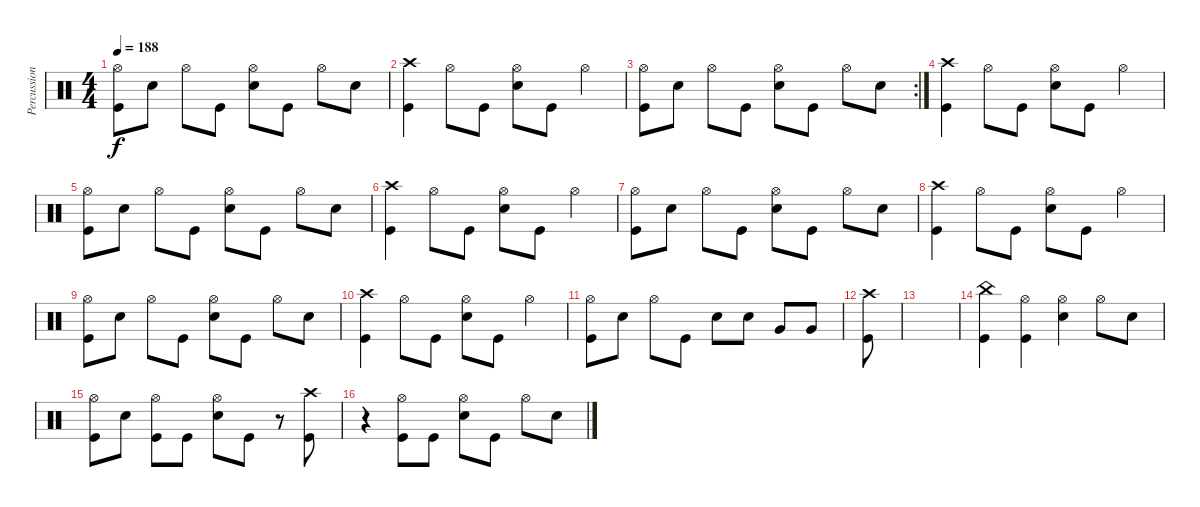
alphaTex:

\track ("Percussion" "Percussion") {instrument percussion}
\staff {score}
\articulation defaults
\ts (4 4)
\tempo 188
\clef neutral
\ks c
("Kick (hit)" "Hi-Hat (open)").8{dy f} "Snare (hit) 2".8 "Hi-Hat (open)".8 "Kick (hit)".8 ("Snare (hit) 2" "Hi-Hat (open)").8 "Kick (hit)".8 "Hi-Hat (open)".8 "Snare (hit) 2".8 |
("Kick (hit)" "Crash high (hit)").4 "Hi-Hat (open)".8 "Kick (hit)".8 ("Snare (hit) 2" "Hi-Hat (open)").8 "Kick (hit)".8 "Hi-Hat (open)".4 |
\rc 2
("Kick (hit)" "Hi-Hat (open)").8 "Snare (hit) 2".8 "Hi-Hat (open)".8 "Kick (hit)".8 ("Snare (hit) 2" "Hi-Hat (open)").8 "Kick (hit)".8 "Hi-Hat (open)".8 "Snare (hit) 2".8 |
("Kick (hit)" "Crash high (hit)").4 "Hi-Hat (open)".8 "Kick (hit)".8 ("Snare (hit) 2" "Hi-Hat (open)").8 "Kick (hit)".8 "Hi-Hat (open)".4 |
("Kick (hit)" "Hi-Hat (open)").8 "Snare (hit) 2".8 "Hi-Hat (open)".8 "Kick (hit)".8 ("Snare (hit) 2" "Hi-Hat (open)").8 "Kick (hit)".8 "Hi-Hat (open)".8 "Snare (hit) 2".8 |
("Kick (hit)" "Crash high (hit)").4 "Hi-Hat (open)".8 "Kick (hit)".8 ("Snare (hit) 2" "Hi-Hat (open)").8 "Kick (hit)".8 "Hi-Hat (open)".4 |
("Kick (hit)" "Hi-Hat (open)").8 "Snare (hit) 2".8 "Hi-Hat (open)".8 "Kick (hit)".8 ("Snare (hit) 2" "Hi-Hat (open)").8 "Kick (hit)".8 "Hi-Hat (open)".8 "Snare (hit) 2".8 |
("Kick (hit)" "Crash high (hit)").4 "Hi-Hat (open)".8 "Kick (hit)".8 ("Snare (hit) 2" "Hi-Hat (open)").8 "Kick (hit)".8 "Hi-Hat (open)".4 |
("Kick (hit)" "Hi-Hat (open)").8 "Snare (hit) 2".8 "Hi-Hat (open)".8 "Kick (hit)".8 ("Snare (hit) 2" "Hi-Hat (open)").8 "Kick (hit)".8 "Hi-Hat (open)".8 "Snare (hit) 2".8 |
("Kick (hit)" "Crash high (hit)").4 "Hi-Hat (open)".8 "Kick (hit)".8 ("Snare (hit) 2" "Hi-Hat (open)").8 "Kick (hit)".8 "Hi-Hat (open)".4 |
("Kick (hit)" "Hi-Hat (open)").8 "Snare (hit) 2".8 "Hi-Hat (open)".8 "Kick (hit)".8 "Snare (hit) 2".8 "Snare (hit) 2".8 "Very Low Tom (hit)".8 "Very Low Tom (hit)".8 |
("Crash high (hit)" "Kick (hit)").8 |
|
("Kick (hit)" "China (hit)").4 ("Kick (hit)" "Hi-Hat (open)").4 ("Snare (hit) 2" "Hi-Hat (open)").4 "Hi-Hat (open)".8 "Snare (hit) 2".8 |
("Kick (hit)" "Hi-Hat (open)").8 "Snare (hit) 2".8 ("Kick (hit)" "Hi-Hat (open)").8 "Kick (hit)".8 ("Snare (hit) 2" "Hi-Hat (open)").8 "Kick (hit)".8 r.8 ("Kick (hit)" "Crash high (hit)").8 |
r.4 ("Kick (hit)" "Hi-Hat (open)").8 "Kick (hit)".8 ("Snare (hit) 2" "Hi-Hat (open)").8 "Kick (hit)".8 "Hi-Hat (open)".8 "Snare (hit) 2".8
